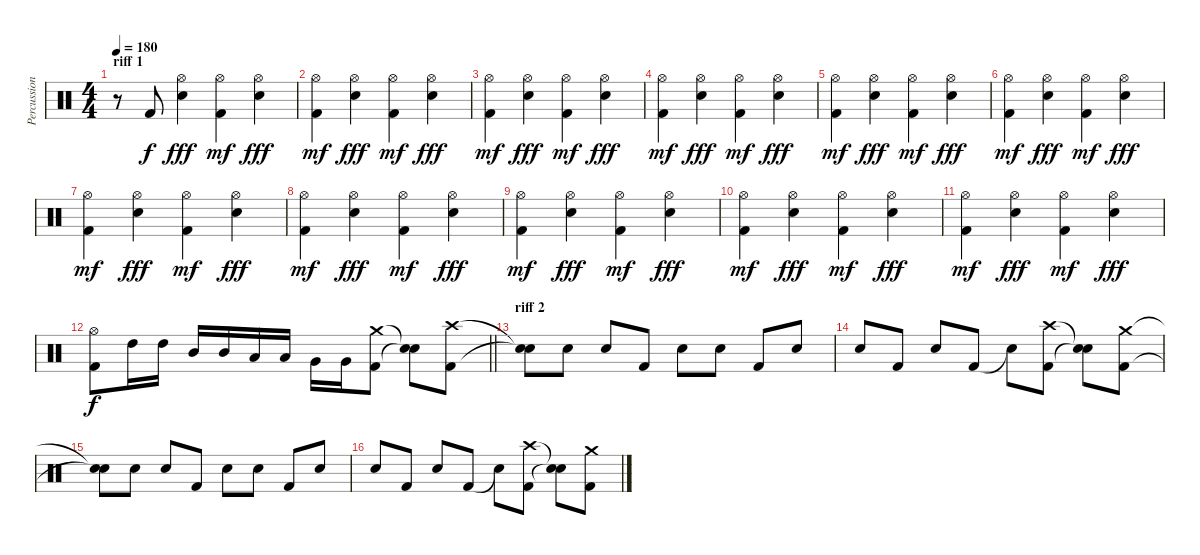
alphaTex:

\track ("Percussions" "Percussion") {instrument percussion}
\staff {score}
\articulation defaults
\ts (4 4)
\section ("" "riff 1")
\tempo 180
\clef neutral
\ks c
r.8{dy f} "Kick (hit) 2".8 ("Hi-Hat (open)" "Electric Snare (hit)").4{dy fff} ("Hi-Hat (open)" "Kick (hit) 2").4{dy mf} ("Hi-Hat (open)" "Electric Snare (hit)").4{dy fff} |
("Hi-Hat (open)" "Kick (hit) 2").4{dy mf} ("Hi-Hat (open)" "Electric Snare (hit)").4{dy fff} ("Hi-Hat (open)" "Kick (hit) 2").4{dy mf} ("Hi-Hat (open)" "Electric Snare (hit)").4{dy fff} |
("Hi-Hat (open)" "Kick (hit) 2").4{dy mf} ("Hi-Hat (open)" "Electric Snare (hit)").4{dy fff} ("Hi-Hat (open)" "Kick (hit) 2").4{dy mf} ("Hi-Hat (open)" "Electric Snare (hit)").4{dy fff} |
("Hi-Hat (open)" "Kick (hit) 2").4{dy mf} ("Hi-Hat (open)" "Electric Snare (hit)").4{dy fff} ("Hi-Hat (open)" "Kick (hit) 2").4{dy mf} ("Hi-Hat (open)" "Electric Snare (hit)").4{dy fff} |
("Hi-Hat (open)" "Kick (hit) 2").4{dy mf} ("Hi-Hat (open)" "Electric Snare (hit)").4{dy fff} ("Hi-Hat (open)" "Kick (hit) 2").4{dy mf} ("Hi-Hat (open)" "Electric Snare (hit)").4{dy fff} |
("Hi-Hat (open)" "Kick (hit) 2").4{dy mf} ("Hi-Hat (open)" "Electric Snare (hit)").4{dy fff} ("Hi-Hat (open)" "Kick (hit) 2").4{dy mf} ("Hi-Hat (open)" "Electric Snare (hit)").4{dy fff} |
("Hi-Hat (open)" "Kick (hit) 2").4{dy mf} ("Hi-Hat (open)" "Electric Snare (hit)").4{dy fff} ("Hi-Hat (open)" "Kick (hit) 2").4{dy mf} ("Hi-Hat (open)" "Electric Snare (hit)").4{dy fff} |
("Hi-Hat (open)" "Kick (hit) 2").4{dy mf} ("Hi-Hat (open)" "Electric Snare (hit)").4{dy fff} ("Hi-Hat (open)" "Kick (hit) 2").4{dy mf} ("Hi-Hat (open)" "Electric Snare (hit)").4{dy fff} |
("Hi-Hat (open)" "Kick (hit) 2").4{dy mf} ("Hi-Hat (open)" "Electric Snare (hit)").4{dy fff} ("Hi-Hat (open)" "Kick (hit) 2").4{dy mf} ("Hi-Hat (open)" "Electric Snare (hit)").4{dy fff} |
("Hi-Hat (open)" "Kick (hit) 2").4{dy mf} ("Hi-Hat (open)" "Electric Snare (hit)").4{dy fff} ("Hi-Hat (open)" "Kick (hit) 2").4{dy mf} ("Hi-Hat (open)" "Electric Snare (hit)").4{dy fff} |
("Hi-Hat (open)" "Kick (hit) 2").4{dy mf} ("Hi-Hat (open)" "Electric Snare (hit)").4{dy fff} ("Hi-Hat (open)" "Kick (hit) 2").4{dy mf} ("Hi-Hat (open)" "Electric Snare (hit)").4{dy fff} |
\barLineRight lightlight
("Hi-Hat (open)" "Kick (hit) 2").8{dy f} "High Tom (hit)".16 "High Tom (hit)".16 "Mid Tom (hit)".16 "Mid Tom (hit)".16 "Low Tom (hit)".16 "Low Tom (hit)".16 "Very Low Tom (hit)".16 "Very Low Tom (hit)".16 ("Crash medium (hit)" "Kick (hit) 2").8 ("Snare (hit)"{t} "Snare (hit)"{t}).8 ("Crash high (hit)" "Kick (hit) 2").8 |
\section ("" "riff 2")
("Snare (hit)"{t} "Snare (hit)"{t}).8 "Electric Snare (hit)".8 "Electric Snare (hit)".8 "Kick (hit) 2".8 "Electric Snare (hit)".8 "Electric Snare (hit)".8 "Kick (hit) 2".8 "Electric Snare (hit)".8 |
"Electric Snare (hit)".8 "Kick (hit) 2".8 "Electric Snare (hit)".8 "Kick (hit) 2".8 "Snare (hit)"{t}.8 ("Crash high (hit)" "Kick (hit) 2").8 ("Snare (hit)"{t} "Snare (hit)"{t}).8 ("Crash medium (hit)" "Kick (hit) 2").8 |
("Snare (hit)"{t} "Snare (hit)"{t}).8 "Electric Snare (hit)".8 "Electric Snare (hit)".8 "Kick (hit) 2".8 "Electric Snare (hit)".8 "Electric Snare (hit)".8 "Kick (hit) 2".8 "Electric Snare (hit)".8 |
"Electric Snare (hit)".8 "Kick (hit) 2".8 "Electric Snare (hit)".8 "Kick (hit) 2".8 "Snare (hit)"{t}.8 ("Crash high (hit)" "Kick (hit) 2").8 ("Snare (hit)"{t} "Snare (hit)"{t}).8 ("Crash medium (hit)" "Kick (hit) 2").8
